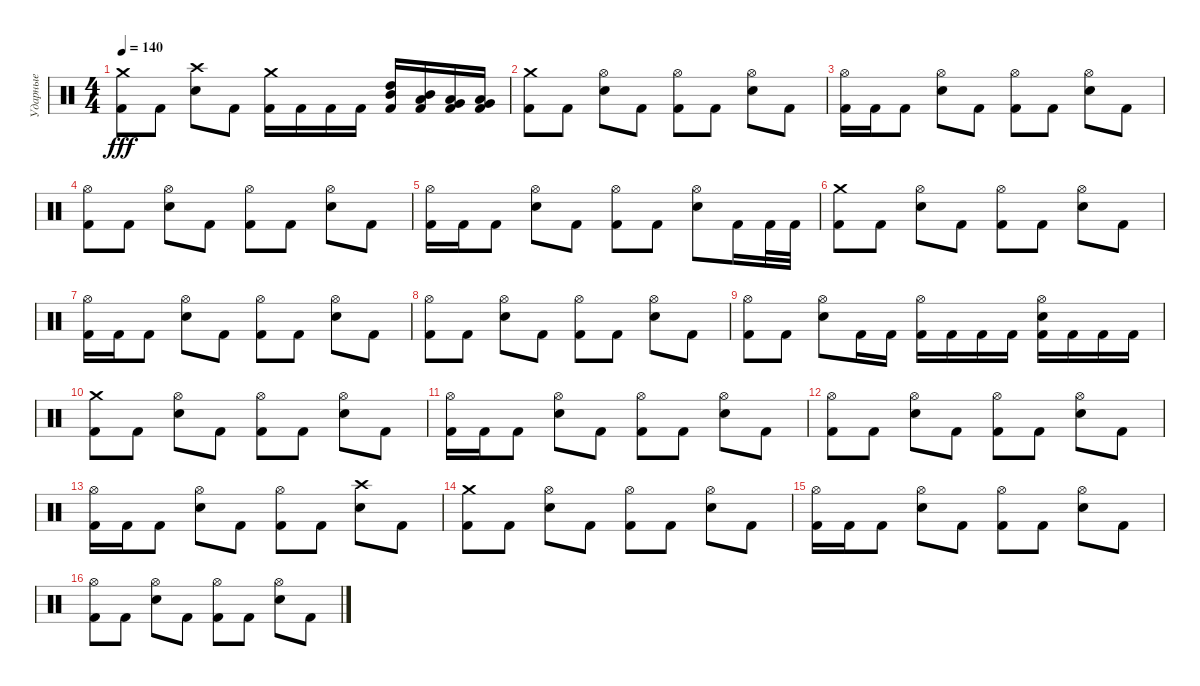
\track ("Ударные" "Ударные") {instrument percussion}
\staff {score}
\articulation defaults
\ts (4 4)
\tempo 140
\clef neutral
\ks c
("Crash medium (hit)" "Kick (hit) 2").8{dy fff} "Kick (hit) 2".8 ("Crash high (hit)" "Electric Snare (hit)").8 "Kick (hit) 2".8 ("Crash medium (hit)" "Kick (hit) 2").16 "Kick (hit) 2".16 "Kick (hit) 2".16 "Kick (hit) 2".16 ("High Tom (hit)" "Mid Tom (hit)" "Kick (hit) 2").16 ("Mid Tom (hit)" "Low Tom (hit)" "Kick (hit) 2").16 ("Low Tom (hit)" "Very Low Tom (hit)" "Kick (hit) 2").16 ("Very Low Tom (hit)" "Low Floor Tom (hit)" "Kick (hit) 2").16 |
("Crash medium (hit)" "Kick (hit) 2").8 "Kick (hit) 2".8 ("Hi-Hat (open)" "Electric Snare (hit)").8 "Kick (hit) 2".8 ("Hi-Hat (open)" "Kick (hit) 2").8 "Kick (hit) 2".8 ("Hi-Hat (open)" "Electric Snare (hit)").8 "Kick (hit) 2".8 |
("Hi-Hat (open)" "Kick (hit) 2").16 "Kick (hit) 2".16 "Kick (hit) 2".8 ("Hi-Hat (open)" "Electric Snare (hit)").8 "Kick (hit) 2".8 ("Hi-Hat (open)" "Kick (hit) 2").8 "Kick (hit) 2".8 ("Hi-Hat (open)" "Electric Snare (hit)").8 "Kick (hit) 2".8 |
("Hi-Hat (open)" "Kick (hit) 2").8 "Kick (hit) 2".8 ("Hi-Hat (open)" "Electric Snare (hit)").8 "Kick (hit) 2".8 ("Hi-Hat (open)" "Kick (hit) 2").8 "Kick (hit) 2".8 ("Hi-Hat (open)" "Electric Snare (hit)").8 "Kick (hit) 2".8 |
("Hi-Hat (open)" "Kick (hit) 2").16 "Kick (hit) 2".16 "Kick (hit) 2".8 ("Hi-Hat (open)" "Electric Snare (hit)").8 "Kick (hit) 2".8 ("Hi-Hat (open)" "Kick (hit) 2").8 "Kick (hit) 2".8 ("Hi-Hat (open)" "Electric Snare (hit)").8 "Kick (hit) 2".16 "Kick (hit) 2".32 "Kick (hit) 2".32 |
("Crash medium (hit)" "Kick (hit) 2").8 "Kick (hit) 2".8 ("Hi-Hat (open)" "Electric Snare (hit)").8 "Kick (hit) 2".8 ("Hi-Hat (open)" "Kick (hit) 2").8 "Kick (hit) 2".8 ("Hi-Hat (open)" "Electric Snare (hit)").8 "Kick (hit) 2".8 |
("Hi-Hat (open)" "Kick (hit) 2").16 "Kick (hit) 2".16 "Kick (hit) 2".8 ("Hi-Hat (open)" "Electric Snare (hit)").8 "Kick (hit) 2".8 ("Hi-Hat (open)" "Kick (hit) 2").8 "Kick (hit) 2".8 ("Hi-Hat (open)" "Electric Snare (hit)").8 "Kick (hit) 2".8 |
("Hi-Hat (open)" "Kick (hit) 2").8 "Kick (hit) 2".8 ("Hi-Hat (open)" "Electric Snare (hit)").8 "Kick (hit) 2".8 ("Hi-Hat (open)" "Kick (hit) 2").8 "Kick (hit) 2".8 ("Hi-Hat (open)" "Electric Snare (hit)").8 "Kick (hit) 2".8 |
("Hi-Hat (open)" "Kick (hit) 2").8 "Kick (hit) 2".8 ("Hi-Hat (open)" "Electric Snare (hit)").8 "Kick (hit) 2".16 "Kick (hit) 2".16 ("Hi-Hat (open)" "Kick (hit) 2").16 "Kick (hit) 2".16 "Kick (hit) 2".16 "Kick (hit) 2".16 ("Hi-Hat (open)" "Electric Snare (hit)" "Kick (hit) 2").16 "Kick (hit) 2".16 "Kick (hit) 2".16 "Kick (hit) 2".16 |
("Crash medium (hit)" "Kick (hit) 2").8 "Kick (hit) 2".8 ("Hi-Hat (open)" "Electric Snare (hit)").8 "Kick (hit) 2".8 ("Hi-Hat (open)" "Kick (hit) 2").8 "Kick (hit) 2".8 ("Hi-Hat (open)" "Electric Snare (hit)").8 "Kick (hit) 2".8 |
("Hi-Hat (open)" "Kick (hit) 2").16 "Kick (hit) 2".16 "Kick (hit) 2".8 ("Hi-Hat (open)" "Electric Snare (hit)").8 "Kick (hit) 2".8 ("Hi-Hat (open)" "Kick (hit) 2").8 "Kick (hit) 2".8 ("Hi-Hat (open)" "Electric Snare (hit)").8 "Kick (hit) 2".8 |
("Hi-Hat (open)" "Kick (hit) 2").8 "Kick (hit) 2".8 ("Hi-Hat (open)" "Electric Snare (hit)").8 "Kick (hit) 2".8 ("Hi-Hat (open)" "Kick (hit) 2").8 "Kick (hit) 2".8 ("Hi-Hat (open)" "Electric Snare (hit)").8 "Kick (hit) 2".8 |
("Hi-Hat (open)" "Kick (hit) 2").16 "Kick (hit) 2".16 "Kick (hit) 2".8 ("Hi-Hat (open)" "Electric Snare (hit)").8 "Kick (hit) 2".8 ("Hi-Hat (open)" "Kick (hit) 2").8 "Kick (hit) 2".8 ("Crash high (hit)" "Electric Snare (hit)").8 "Kick (hit) 2".8 |
("Crash medium (hit)" "Kick (hit) 2").8 "Kick (hit) 2".8 ("Hi-Hat (open)" "Electric Snare (hit)").8 "Kick (hit) 2".8 ("Hi-Hat (open)" "Kick (hit) 2").8 "Kick (hit) 2".8 ("Hi-Hat (open)" "Electric Snare (hit)").8 "Kick (hit) 2".8 |
("Hi-Hat (open)" "Kick (hit) 2").16 "Kick (hit) 2".16 "Kick (hit) 2".8 ("Hi-Hat (open)" "Electric Snare (hit)").8 "Kick (hit) 2".8 ("Hi-Hat (open)" "Kick (hit) 2").8 "Kick (hit) 2".8 ("Hi-Hat (open)" "Electric Snare (hit)").8 "Kick (hit) 2".8 |
("Hi-Hat (open)" "Kick (hit) 2").8 "Kick (hit) 2".8 ("Hi-Hat (open)" "Electric Snare (hit)").8 "Kick (hit) 2".8 ("Hi-Hat (open)" "Kick (hit) 2").8 "Kick (hit) 2".8 ("Hi-Hat (open)" "Electric Snare (hit)").8 "Kick (hit) 2".8
